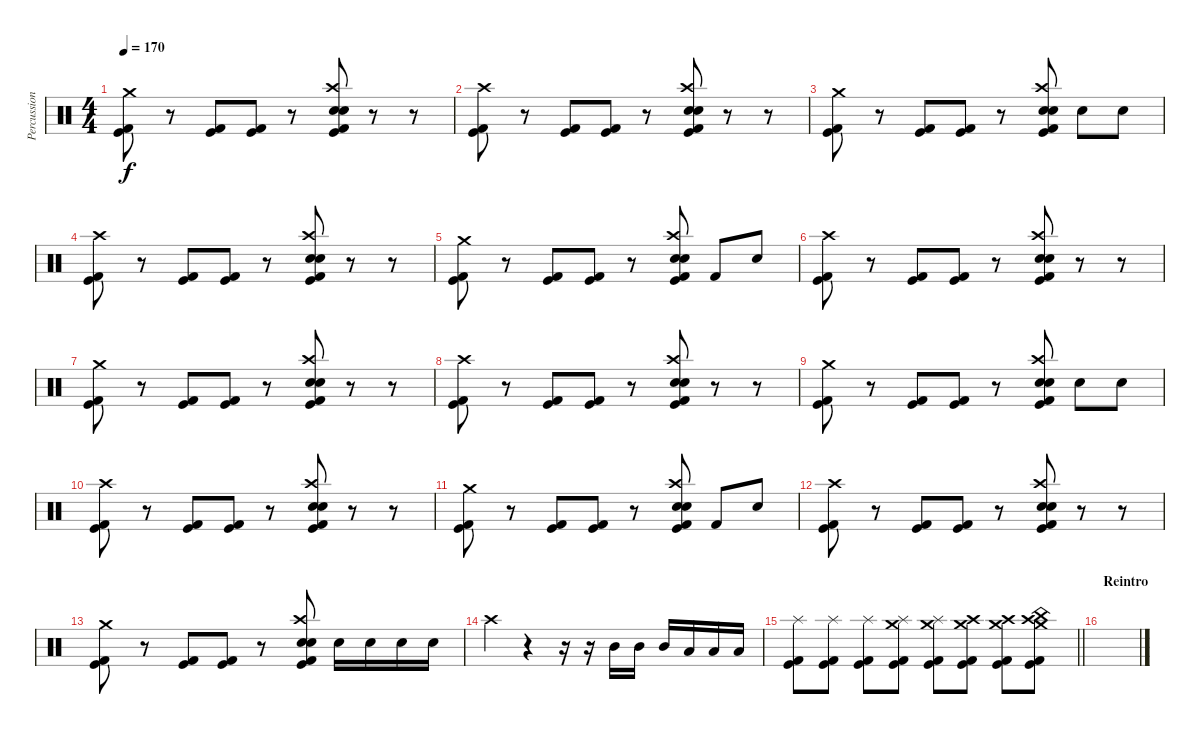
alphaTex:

\track ("Percussion" "Percussion") {instrument percussion}
\staff {score}
\articulation defaults
\ts (4 4)
\tempo 170
\clef neutral
\ks c
("Crash medium (hit)" "Kick (hit)" "Kick (hit) 2").8{dy f} r.8 ("Kick (hit)" "Kick (hit) 2").8 ("Kick (hit)" "Kick (hit) 2").8 r.8 ("Crash high (hit)" "Snare (hit) 2" "Electric Snare (hit)" "Kick (hit)" "Kick (hit) 2").8 r.8 r.8 |
("Crash high (hit)" "Kick (hit)" "Kick (hit) 2").8 r.8 ("Kick (hit)" "Kick (hit) 2").8 ("Kick (hit)" "Kick (hit) 2").8 r.8 ("Crash high (hit)" "Snare (hit) 2" "Electric Snare (hit)" "Kick (hit)" "Kick (hit) 2").8 r.8 r.8 |
("Crash medium (hit)" "Kick (hit)" "Kick (hit) 2").8 r.8 ("Kick (hit)" "Kick (hit) 2").8 ("Kick (hit)" "Kick (hit) 2").8 r.8 ("Crash high (hit)" "Snare (hit) 2" "Electric Snare (hit)" "Kick (hit)" "Kick (hit) 2").8 "Electric Snare (hit)".8 "Electric Snare (hit)".8 |
("Crash high (hit)" "Kick (hit)" "Kick (hit) 2").8 r.8 ("Kick (hit)" "Kick (hit) 2").8 ("Kick (hit)" "Kick (hit) 2").8 r.8 ("Crash high (hit)" "Snare (hit) 2" "Electric Snare (hit)" "Kick (hit)" "Kick (hit) 2").8 r.8 r.8 |
("Crash medium (hit)" "Kick (hit)" "Kick (hit) 2").8 r.8 ("Kick (hit)" "Kick (hit) 2").8 ("Kick (hit)" "Kick (hit) 2").8 r.8 ("Crash high (hit)" "Snare (hit) 2" "Electric Snare (hit)" "Kick (hit)" "Kick (hit) 2").8 "Kick (hit) 2".8 "Electric Snare (hit)".8 |
("Crash high (hit)" "Kick (hit)" "Kick (hit) 2").8 r.8 ("Kick (hit)" "Kick (hit) 2").8 ("Kick (hit)" "Kick (hit) 2").8 r.8 ("Crash high (hit)" "Snare (hit) 2" "Electric Snare (hit)" "Kick (hit)" "Kick (hit) 2").8 r.8 r.8 |
("Crash medium (hit)" "Kick (hit)" "Kick (hit) 2").8 r.8 ("Kick (hit)" "Kick (hit) 2").8 ("Kick (hit)" "Kick (hit) 2").8 r.8 ("Crash high (hit)" "Snare (hit) 2" "Electric Snare (hit)" "Kick (hit)" "Kick (hit) 2").8 r.8 r.8 |
("Crash high (hit)" "Kick (hit)" "Kick (hit) 2").8 r.8 ("Kick (hit)" "Kick (hit) 2").8 ("Kick (hit)" "Kick (hit) 2").8 r.8 ("Crash high (hit)" "Snare (hit) 2" "Electric Snare (hit)" "Kick (hit)" "Kick (hit) 2").8 r.8 r.8 |
("Crash medium (hit)" "Kick (hit)" "Kick (hit) 2").8 r.8 ("Kick (hit)" "Kick (hit) 2").8 ("Kick (hit)" "Kick (hit) 2").8 r.8 ("Crash high (hit)" "Snare (hit) 2" "Electric Snare (hit)" "Kick (hit)" "Kick (hit) 2").8 "Electric Snare (hit)".8 "Electric Snare (hit)".8 |
("Crash high (hit)" "Kick (hit)" "Kick (hit) 2").8 r.8 ("Kick (hit)" "Kick (hit) 2").8 ("Kick (hit)" "Kick (hit) 2").8 r.8 ("Crash high (hit)" "Snare (hit) 2" "Electric Snare (hit)" "Kick (hit)" "Kick (hit) 2").8 r.8 r.8 |
("Crash medium (hit)" "Kick (hit)" "Kick (hit) 2").8 r.8 ("Kick (hit)" "Kick (hit) 2").8 ("Kick (hit)" "Kick (hit) 2").8 r.8 ("Crash high (hit)" "Snare (hit) 2" "Electric Snare (hit)" "Kick (hit)" "Kick (hit) 2").8 "Kick (hit) 2".8 "Electric Snare (hit)".8 |
("Crash high (hit)" "Kick (hit)" "Kick (hit) 2").8 r.8 ("Kick (hit)" "Kick (hit) 2").8 ("Kick (hit)" "Kick (hit) 2").8 r.8 ("Crash high (hit)" "Snare (hit) 2" "Electric Snare (hit)" "Kick (hit)" "Kick (hit) 2").8 r.8 r.8 |
("Crash medium (hit)" "Kick (hit)" "Kick (hit) 2").8 r.8 ("Kick (hit)" "Kick (hit) 2").8 ("Kick (hit)" "Kick (hit) 2").8 r.8 ("Crash high (hit)" "Snare (hit) 2" "Electric Snare (hit)" "Kick (hit)" "Kick (hit) 2").8 "Electric Snare (hit)".16 "Electric Snare (hit)".16 "Electric Snare (hit)".16 "Electric Snare (hit)".16 |
"Crash high (hit)".4 r.4 r.16 r.16 "Mid Tom (hit)".16 "Mid Tom (hit)".16 "Mid Tom (hit)".16 "Low Tom (hit)".16 "Low Tom (hit)".16 "Low Tom (hit)".16 |
\barLineRight lightlight
("Splash (hit)" "Kick (hit)" "Kick (hit) 2").8 ("Splash (hit)" "Kick (hit)" "Kick (hit) 2").8 ("Splash (hit)" "Kick (hit)" "Kick (hit) 2").8 ("Splash (hit)" "Crash medium (hit)" "Kick (hit)" "Kick (hit) 2").8 ("Splash (hit)" "Crash medium (hit)" "Kick (hit)" "Kick (hit) 2").8 ("Crash high (hit)" "Crash medium (hit)" "Kick (hit)" "Kick (hit) 2").8 ("Crash high (hit)" "Crash medium (hit)" "Kick (hit)" "Kick (hit) 2").8 ("Crash high (hit)" "Crash medium (hit)" "China (hit)" "Kick (hit)" "Kick (hit) 2").8 |
\section ("" "Reintro")
